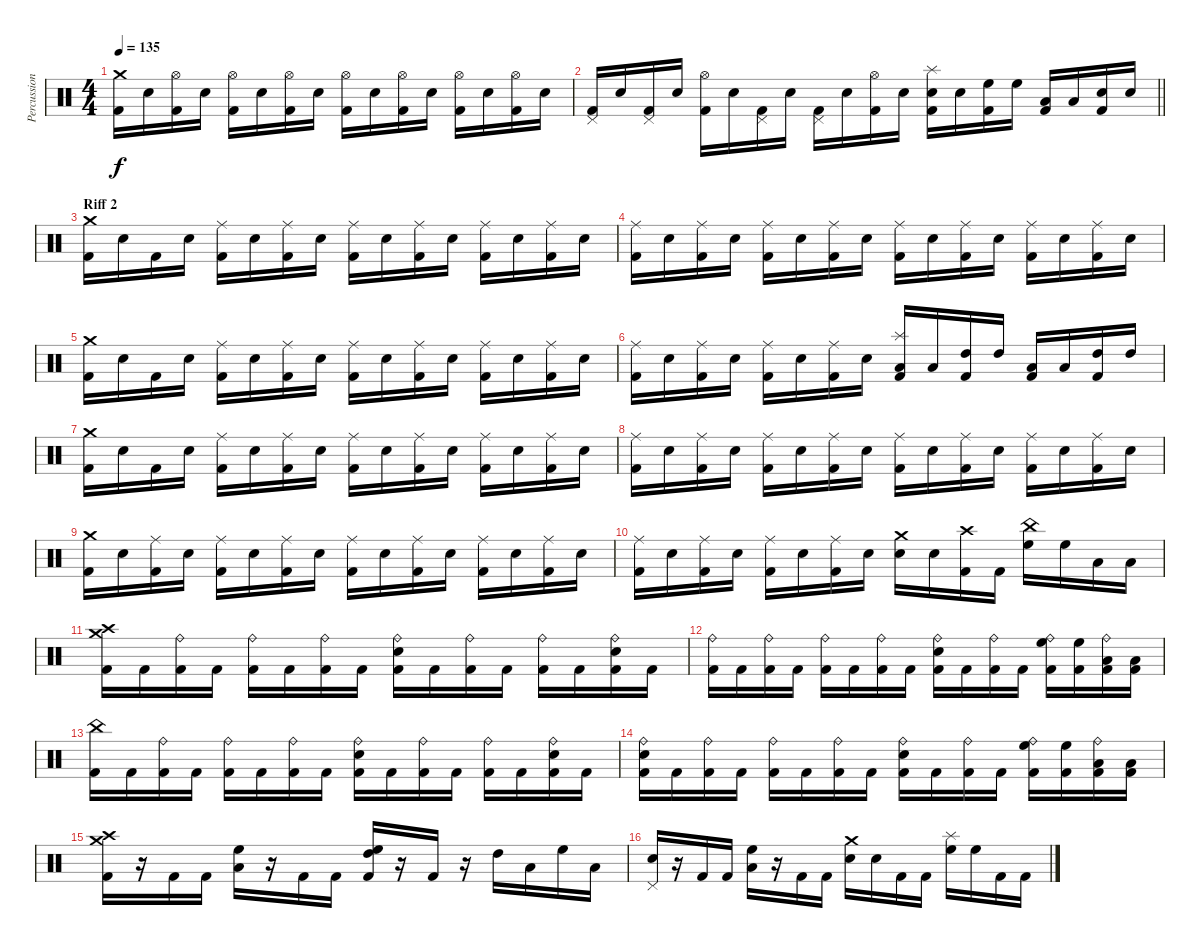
\track ("Percussion" "Percussion") {instrument percussion}
\staff {score}
\articulation defaults
\ts (4 4)
\tempo 135
\clef neutral
\ks c
("Crash medium (hit)" "Kick (hit) 2").16{dy f} "Electric Snare (hit)".16 ("Hi-Hat (open)" "Kick (hit) 2").16 "Electric Snare (hit)".16 ("Hi-Hat (open)" "Kick (hit) 2").16 "Electric Snare (hit)".16 ("Hi-Hat (open)" "Kick (hit) 2").16 "Electric Snare (hit)".16 ("Hi-Hat (open)" "Kick (hit) 2").16 "Electric Snare (hit)".16 ("Hi-Hat (open)" "Kick (hit) 2").16 "Electric Snare (hit)".16 ("Hi-Hat (open)" "Kick (hit) 2").16 "Electric Snare (hit)".16 ("Hi-Hat (open)" "Kick (hit) 2").16 "Electric Snare (hit)".16 |
\barLineRight lightlight
("Pedal Hi-Hat (hit)" "Kick (hit) 2").16 "Electric Snare (hit)".16 ("Pedal Hi-Hat (hit)" "Kick (hit) 2").16 "Electric Snare (hit)".16 ("Hi-Hat (open)" "Kick (hit) 2").16 "Electric Snare (hit)".16 ("Pedal Hi-Hat (hit)" "Kick (hit) 2").16 "Electric Snare (hit)".16 ("Pedal Hi-Hat (hit)" "Kick (hit) 2").16 "Electric Snare (hit)".16 ("Hi-Hat (open)" "Kick (hit) 2").16 "Electric Snare (hit)".16 ("Splash (hit)" "Electric Snare (hit)" "Kick (hit) 2").16 "Electric Snare (hit)".16 ("High Floor Tom (hit)" "Kick (hit) 2").16 "High Floor Tom (hit)".16 ("Low Tom (hit)" "Kick (hit) 2").16 "Low Tom (hit)".16 ("Electric Snare (hit)" "Kick (hit) 2").16 "Electric Snare (hit)".16 |
\section ("" "Riff 2")
("Crash medium (hit)" "Kick (hit) 2").16 "Electric Snare (hit)".16 "Kick (hit) 2".16 "Electric Snare (hit)".16 ("Ride (middle)" "Kick (hit) 2").16 "Electric Snare (hit)".16 ("Ride (middle)" "Kick (hit) 2").16 "Electric Snare (hit)".16 ("Ride (middle)" "Kick (hit) 2").16 "Electric Snare (hit)".16 ("Ride (middle)" "Kick (hit) 2").16 "Electric Snare (hit)".16 ("Ride (middle)" "Kick (hit) 2").16 "Electric Snare (hit)".16 ("Ride (middle)" "Kick (hit) 2").16 "Electric Snare (hit)".16 |
("Ride (middle)" "Kick (hit) 2").16 "Electric Snare (hit)".16 ("Ride (middle)" "Kick (hit) 2").16 "Electric Snare (hit)".16 ("Ride (middle)" "Kick (hit) 2").16 "Electric Snare (hit)".16 ("Ride (middle)" "Kick (hit) 2").16 "Electric Snare (hit)".16 ("Ride (middle)" "Kick (hit) 2").16 "Electric Snare (hit)".16 ("Ride (middle)" "Kick (hit) 2").16 "Electric Snare (hit)".16 ("Ride (middle)" "Kick (hit) 2").16 "Electric Snare (hit)".16 ("Ride (middle)" "Kick (hit) 2").16 "Electric Snare (hit)".16 |
("Crash medium (hit)" "Kick (hit) 2").16 "Electric Snare (hit)".16 "Kick (hit) 2".16 "Electric Snare (hit)".16 ("Ride (middle)" "Kick (hit) 2").16 "Electric Snare (hit)".16 ("Ride (middle)" "Kick (hit) 2").16 "Electric Snare (hit)".16 ("Ride (middle)" "Kick (hit) 2").16 "Electric Snare (hit)".16 ("Ride (middle)" "Kick (hit) 2").16 "Electric Snare (hit)".16 ("Ride (middle)" "Kick (hit) 2").16 "Electric Snare (hit)".16 ("Ride (middle)" "Kick (hit) 2").16 "Electric Snare (hit)".16 |
("Ride (middle)" "Kick (hit) 2").16 "Electric Snare (hit)".16 ("Ride (middle)" "Kick (hit) 2").16 "Electric Snare (hit)".16 ("Ride (middle)" "Kick (hit) 2").16 "Electric Snare (hit)".16 ("Ride (middle)" "Kick (hit) 2").16 "Electric Snare (hit)".16 ("Splash (hit)" "Low Tom (hit)" "Kick (hit) 2").16 "Low Tom (hit)".16 ("High Tom (hit)" "Kick (hit) 2").16 "High Tom (hit)".16 ("Low Tom (hit)" "Kick (hit) 2").16 "Low Tom (hit)".16 ("High Tom (hit)" "Kick (hit) 2").16 "High Tom (hit)".16 |
("Crash medium (hit)" "Kick (hit) 2").16 "Electric Snare (hit)".16 "Kick (hit) 2".16 "Electric Snare (hit)".16 ("Ride (middle)" "Kick (hit) 2").16 "Electric Snare (hit)".16 ("Ride (middle)" "Kick (hit) 2").16 "Electric Snare (hit)".16 ("Ride (middle)" "Kick (hit) 2").16 "Electric Snare (hit)".16 ("Ride (middle)" "Kick (hit) 2").16 "Electric Snare (hit)".16 ("Ride (middle)" "Kick (hit) 2").16 "Electric Snare (hit)".16 ("Ride (middle)" "Kick (hit) 2").16 "Electric Snare (hit)".16 |
("Ride (middle)" "Kick (hit) 2").16 "Electric Snare (hit)".16 ("Ride (middle)" "Kick (hit) 2").16 "Electric Snare (hit)".16 ("Ride (middle)" "Kick (hit) 2").16 "Electric Snare (hit)".16 ("Ride (middle)" "Kick (hit) 2").16 "Electric Snare (hit)".16 ("Ride (middle)" "Kick (hit) 2").16 "Electric Snare (hit)".16 ("Ride (middle)" "Kick (hit) 2").16 "Electric Snare (hit)".16 ("Ride (middle)" "Kick (hit) 2").16 "Electric Snare (hit)".16 ("Ride (middle)" "Kick (hit) 2").16 "Electric Snare (hit)".16 |
("Crash medium (hit)" "Kick (hit) 2").16 "Electric Snare (hit)".16 ("Ride (middle)" "Kick (hit) 2").16 "Electric Snare (hit)".16 ("Ride (middle)" "Kick (hit) 2").16 "Electric Snare (hit)".16 ("Ride (middle)" "Kick (hit) 2").16 "Electric Snare (hit)".16 ("Ride (middle)" "Kick (hit) 2").16 "Electric Snare (hit)".16 ("Ride (middle)" "Kick (hit) 2").16 "Electric Snare (hit)".16 ("Ride (middle)" "Kick (hit) 2").16 "Electric Snare (hit)".16 ("Ride (middle)" "Kick (hit) 2").16 "Electric Snare (hit)".16 |
("Ride (middle)" "Kick (hit) 2").16 "Electric Snare (hit)".16 ("Ride (middle)" "Kick (hit) 2").16 "Electric Snare (hit)".16 ("Ride (middle)" "Kick (hit) 2").16 "Electric Snare (hit)".16 ("Ride (middle)" "Kick (hit) 2").16 "Electric Snare (hit)".16 ("Crash medium (hit)" "Electric Snare (hit)").16 "Electric Snare (hit)".16 ("Crash high (hit)" "Kick (hit) 2").16 "Kick (hit) 2".16 ("China (hit)" "High Floor Tom (hit)").16 "High Floor Tom (hit)".16 "Low Tom (hit)".16 "Low Tom (hit)".16 |
("Crash medium (hit)" "Crash high (hit)" "Kick (hit) 2").16 "Kick (hit) 2".16 ("Ride (bell)" "Kick (hit) 2").16 "Kick (hit) 2".16 ("Ride (bell)" "Kick (hit) 2").16 "Kick (hit) 2".16 ("Ride (bell)" "Kick (hit) 2").16 "Kick (hit) 2".16 ("Ride (bell)" "Electric Snare (hit)" "Kick (hit) 2").16 "Kick (hit) 2".16 ("Ride (bell)" "Kick (hit) 2").16 "Kick (hit) 2".16 ("Ride (bell)" "Kick (hit) 2").16 "Kick (hit) 2".16 ("Ride (bell)" "Electric Snare (hit)" "Kick (hit) 2").16 "Kick (hit) 2".16 |
("Ride (bell)" "Kick (hit) 2").16 "Kick (hit) 2".16 ("Ride (bell)" "Kick (hit) 2").16 "Kick (hit) 2".16 ("Ride (bell)" "Kick (hit) 2").16 "Kick (hit) 2".16 ("Ride (bell)" "Kick (hit) 2").16 "Kick (hit) 2".16 ("Ride (bell)" "Electric Snare (hit)" "Kick (hit) 2").16 "Kick (hit) 2".16 ("Ride (bell)" "Kick (hit) 2").16 "Kick (hit) 2".16 ("Ride (bell)" "High Floor Tom (hit)" "Kick (hit) 2").16 ("High Floor Tom (hit)" "Kick (hit) 2").16 ("Ride (bell)" "Low Tom (hit)" "Kick (hit) 2").16 ("Low Tom (hit)" "Kick (hit) 2").16 |
("China (hit)" "Kick (hit) 2").16 "Kick (hit) 2".16 ("Ride (bell)" "Kick (hit) 2").16 "Kick (hit) 2".16 ("Ride (bell)" "Kick (hit) 2").16 "Kick (hit) 2".16 ("Ride (bell)" "Kick (hit) 2").16 "Kick (hit) 2".16 ("Ride (bell)" "Electric Snare (hit)" "Kick (hit) 2").16 "Kick (hit) 2".16 ("Ride (bell)" "Kick (hit) 2").16 "Kick (hit) 2".16 ("Ride (bell)" "Kick (hit) 2").16 "Kick (hit) 2".16 ("Ride (bell)" "Electric Snare (hit)" "Kick (hit) 2").16 "Kick (hit) 2".16 |
("Ride (bell)" "Electric Snare (hit)" "Kick (hit) 2").16 "Kick (hit) 2".16 ("Ride (bell)" "Kick (hit) 2").16 "Kick (hit) 2".16 ("Ride (bell)" "Kick (hit) 2").16 "Kick (hit) 2".16 ("Ride (bell)" "Kick (hit) 2").16 "Kick (hit) 2".16 ("Ride (bell)" "Electric Snare (hit)" "Kick (hit) 2").16 "Kick (hit) 2".16 ("Ride (bell)" "Kick (hit) 2").16 "Kick (hit) 2".16 ("Ride (bell)" "High Floor Tom (hit)" "Kick (hit) 2").16 ("High Floor Tom (hit)" "Kick (hit) 2").16 ("Ride (bell)" "Low Tom (hit)" "Kick (hit) 2").16 ("Low Tom (hit)" "Kick (hit) 2").16 |
("Crash medium (hit)" "Crash high (hit)" "Kick (hit) 2").16 r.16 "Kick (hit) 2".16 "Kick (hit) 2".16 ("Low Tom (hit)" "High Floor Tom (hit)").16 r.16 "Kick (hit) 2".16 "Kick (hit) 2".16 ("High Tom (hit)" "High Floor Tom (hit)" "Kick (hit) 2").16 r.16 "Kick (hit) 2".16 r.16 "High Tom (hit)".16 "Low Tom (hit)".16 "High Floor Tom (hit)".16 "Low Tom (hit)".16 |
("Pedal Hi-Hat (hit)" "Electric Snare (hit)").16 r.16 "Kick (hit) 2".16 "Kick (hit) 2".16 ("Low Tom (hit)" "High Floor Tom (hit)").16 r.16 "Kick (hit) 2".16 "Kick (hit) 2".16 ("Crash medium (hit)" "Electric Snare (hit)").16 "Electric Snare (hit)".16 "Kick (hit) 2".16 "Kick (hit) 2".16 ("Splash (hit)" "High Floor Tom (hit)").16 "High Floor Tom (hit)".16 "Kick (hit) 2".16 "Kick (hit) 2".16
